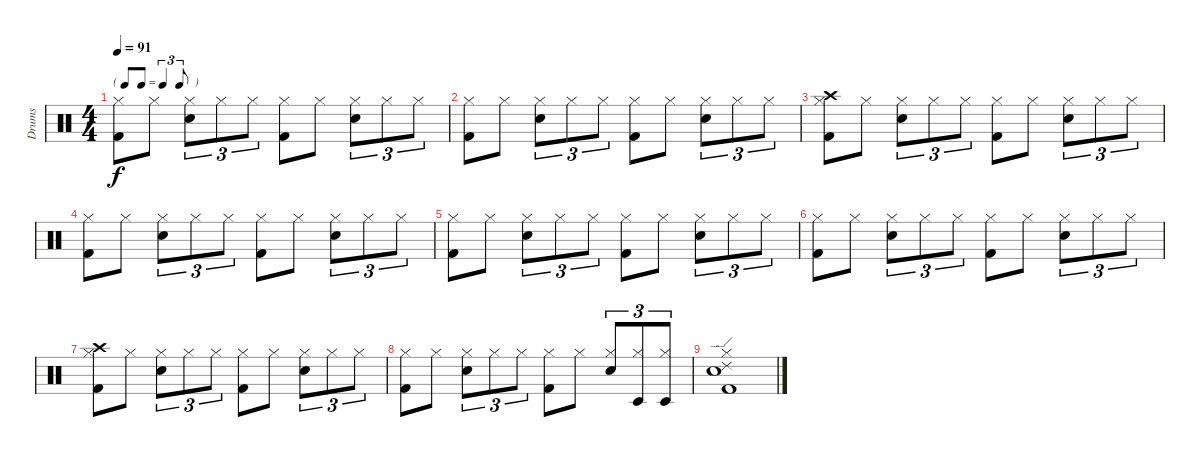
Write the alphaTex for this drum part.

\track ("Drums" "Drums") {instrument percussion}
\staff {score}
\articulation defaults
\ts (4 4)
\tf triplet8th
\tempo 91
\clef neutral
\ks c
("Hi-Hat (closed)" "Kick (hit) 2").8{dy f} "Hi-Hat (closed)".8 ("Hi-Hat (closed)" "Snare (hit) 2").8{tu (3 2)} "Hi-Hat (closed)".8{tu (3 2)} "Hi-Hat (closed)".8{tu (3 2)} ("Hi-Hat (closed)" "Kick (hit) 2").8 "Hi-Hat (closed)".8 ("Hi-Hat (closed)" "Snare (hit) 2").8{tu (3 2)} "Hi-Hat (closed)".8{tu (3 2)} "Hi-Hat (closed)".8{tu (3 2)} |
("Hi-Hat (closed)" "Kick (hit) 2").8 "Hi-Hat (closed)".8 ("Hi-Hat (closed)" "Snare (hit) 2").8{tu (3 2)} "Hi-Hat (closed)".8{tu (3 2)} "Hi-Hat (closed)".8{tu (3 2)} ("Hi-Hat (closed)" "Kick (hit) 2").8 "Hi-Hat (closed)".8 ("Hi-Hat (closed)" "Snare (hit) 2").8{tu (3 2)} "Hi-Hat (closed)".8{tu (3 2)} "Hi-Hat (closed)".8{tu (3 2)} |
("Crash high (hit)" "Hi-Hat (closed)" "Kick (hit) 2").8 "Hi-Hat (closed)".8 ("Hi-Hat (closed)" "Snare (hit) 2").8{tu (3 2)} "Hi-Hat (closed)".8{tu (3 2)} "Hi-Hat (closed)".8{tu (3 2)} ("Hi-Hat (closed)" "Kick (hit) 2").8 "Hi-Hat (closed)".8 ("Hi-Hat (closed)" "Snare (hit) 2").8{tu (3 2)} "Hi-Hat (closed)".8{tu (3 2)} "Hi-Hat (closed)".8{tu (3 2)} |
("Hi-Hat (closed)" "Kick (hit) 2").8 "Hi-Hat (closed)".8 ("Hi-Hat (closed)" "Snare (hit) 2").8{tu (3 2)} "Hi-Hat (closed)".8{tu (3 2)} "Hi-Hat (closed)".8{tu (3 2)} ("Hi-Hat (closed)" "Kick (hit) 2").8 "Hi-Hat (closed)".8 ("Hi-Hat (closed)" "Snare (hit) 2").8{tu (3 2)} "Hi-Hat (closed)".8{tu (3 2)} "Hi-Hat (closed)".8{tu (3 2)} |
("Hi-Hat (closed)" "Kick (hit) 2").8 "Hi-Hat (closed)".8 ("Hi-Hat (closed)" "Snare (hit) 2").8{tu (3 2)} "Hi-Hat (closed)".8{tu (3 2)} "Hi-Hat (closed)".8{tu (3 2)} ("Hi-Hat (closed)" "Kick (hit) 2").8 "Hi-Hat (closed)".8 ("Hi-Hat (closed)" "Snare (hit) 2").8{tu (3 2)} "Hi-Hat (closed)".8{tu (3 2)} "Hi-Hat (closed)".8{tu (3 2)} |
("Hi-Hat (closed)" "Kick (hit) 2").8 "Hi-Hat (closed)".8 ("Hi-Hat (closed)" "Snare (hit) 2").8{tu (3 2)} "Hi-Hat (closed)".8{tu (3 2)} "Hi-Hat (closed)".8{tu (3 2)} ("Hi-Hat (closed)" "Kick (hit) 2").8 "Hi-Hat (closed)".8 ("Hi-Hat (closed)" "Snare (hit) 2").8{tu (3 2)} "Hi-Hat (closed)".8{tu (3 2)} "Hi-Hat (closed)".8{tu (3 2)} |
("Crash high (hit)" "Hi-Hat (closed)" "Kick (hit) 2").8 "Hi-Hat (closed)".8 ("Hi-Hat (closed)" "Snare (hit) 2").8{tu (3 2)} "Hi-Hat (closed)".8{tu (3 2)} "Hi-Hat (closed)".8{tu (3 2)} ("Hi-Hat (closed)" "Kick (hit) 2").8 "Hi-Hat (closed)".8 ("Hi-Hat (closed)" "Snare (hit) 2").8{tu (3 2)} "Hi-Hat (closed)".8{tu (3 2)} "Hi-Hat (closed)".8{tu (3 2)} |
("Hi-Hat (closed)" "Kick (hit) 2").8 "Hi-Hat (closed)".8 ("Hi-Hat (closed)" "Snare (hit) 2").8{tu (3 2)} "Hi-Hat (closed)".8{tu (3 2)} "Hi-Hat (closed)".8{tu (3 2)} ("Hi-Hat (closed)" "Kick (hit) 2").8 "Hi-Hat (closed)".8 ("Hi-Hat (closed)" "Snare (hit) 2").8{tu (3 2)} ("Hi-Hat (closed)" "Timbale low (hit)").8{tu (3 2)} ("Hi-Hat (closed)" "Timbale low (hit)").8{tu (3 2)} |
("Hi-Hat (closed)" "Snare (hit) 2" "Ride (edge) 2" "Kick (hit) 2").1
